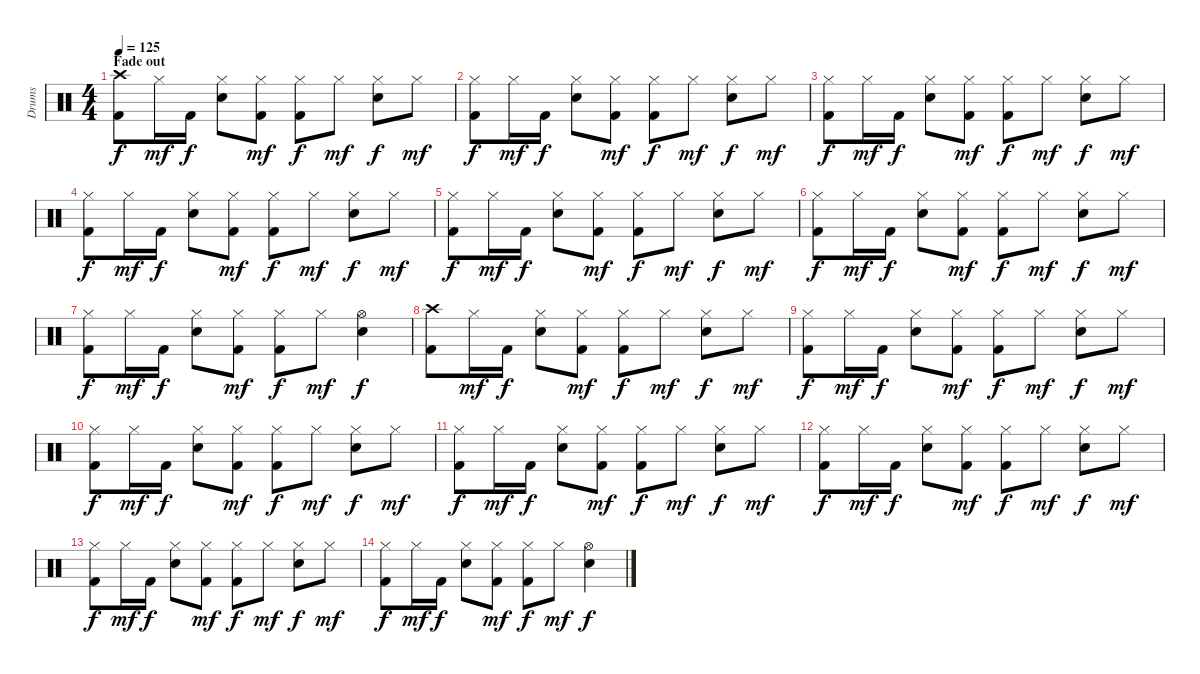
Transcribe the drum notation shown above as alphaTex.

\track ("Drums" "Drums") {instrument percussion}
\staff {score}
\articulation defaults
\ts (4 4)
\section ("" "Fade out")
\tempo 125
\clef neutral
\ks c
("Crash high (hit)" "Kick (hit) 2").8{dy f} "Hi-Hat (closed)".16{dy mf} "Kick (hit) 2".16{dy f} ("Hi-Hat (closed)" "Electric Snare (hit)").8 ("Hi-Hat (closed)" "Kick (hit) 2").8{dy mf} ("Hi-Hat (closed)" "Kick (hit) 2").8{dy f} "Hi-Hat (closed)".8{dy mf} ("Hi-Hat (closed)" "Electric Snare (hit)").8{dy f} "Hi-Hat (closed)".8{dy mf} |
("Hi-Hat (closed)" "Kick (hit) 2").8{dy f} "Hi-Hat (closed)".16{dy mf} "Kick (hit) 2".16{dy f} ("Hi-Hat (closed)" "Electric Snare (hit)").8 ("Hi-Hat (closed)" "Kick (hit) 2").8{dy mf} ("Hi-Hat (closed)" "Kick (hit) 2").8{dy f} "Hi-Hat (closed)".8{dy mf} ("Hi-Hat (closed)" "Electric Snare (hit)").8{dy f} "Hi-Hat (closed)".8{dy mf} |
("Hi-Hat (closed)" "Kick (hit) 2").8{dy f} "Hi-Hat (closed)".16{dy mf} "Kick (hit) 2".16{dy f} ("Hi-Hat (closed)" "Electric Snare (hit)").8 ("Hi-Hat (closed)" "Kick (hit) 2").8{dy mf} ("Hi-Hat (closed)" "Kick (hit) 2").8{dy f} "Hi-Hat (closed)".8{dy mf} ("Hi-Hat (closed)" "Electric Snare (hit)").8{dy f} "Hi-Hat (closed)".8{dy mf} |
("Hi-Hat (closed)" "Kick (hit) 2").8{dy f} "Hi-Hat (closed)".16{dy mf} "Kick (hit) 2".16{dy f} ("Hi-Hat (closed)" "Electric Snare (hit)").8 ("Hi-Hat (closed)" "Kick (hit) 2").8{dy mf} ("Hi-Hat (closed)" "Kick (hit) 2").8{dy f} "Hi-Hat (closed)".8{dy mf} ("Hi-Hat (closed)" "Electric Snare (hit)").8{dy f} "Hi-Hat (closed)".8{dy mf} |
("Hi-Hat (closed)" "Kick (hit) 2").8{dy f} "Hi-Hat (closed)".16{dy mf} "Kick (hit) 2".16{dy f} ("Hi-Hat (closed)" "Electric Snare (hit)").8 ("Hi-Hat (closed)" "Kick (hit) 2").8{dy mf} ("Hi-Hat (closed)" "Kick (hit) 2").8{dy f} "Hi-Hat (closed)".8{dy mf} ("Hi-Hat (closed)" "Electric Snare (hit)").8{dy f} "Hi-Hat (closed)".8{dy mf} |
("Hi-Hat (closed)" "Kick (hit) 2").8{dy f} "Hi-Hat (closed)".16{dy mf} "Kick (hit) 2".16{dy f} ("Hi-Hat (closed)" "Electric Snare (hit)").8 ("Hi-Hat (closed)" "Kick (hit) 2").8{dy mf} ("Hi-Hat (closed)" "Kick (hit) 2").8{dy f} "Hi-Hat (closed)".8{dy mf} ("Hi-Hat (closed)" "Electric Snare (hit)").8{dy f} "Hi-Hat (closed)".8{dy mf} |
("Hi-Hat (closed)" "Kick (hit) 2").8{dy f volume 8} "Hi-Hat (closed)".16{dy mf} "Kick (hit) 2".16{dy f} ("Hi-Hat (closed)" "Electric Snare (hit)").8 ("Hi-Hat (closed)" "Kick (hit) 2").8{dy mf} ("Hi-Hat (closed)" "Kick (hit) 2").8{dy f} "Hi-Hat (closed)".8{dy mf} ("Hi-Hat (open)" "Electric Snare (hit)").4{dy f} |
("Crash high (hit)" "Kick (hit) 2").8 "Hi-Hat (closed)".16{dy mf} "Kick (hit) 2".16{dy f} ("Hi-Hat (closed)" "Electric Snare (hit)").8 ("Hi-Hat (closed)" "Kick (hit) 2").8{dy mf} ("Hi-Hat (closed)" "Kick (hit) 2").8{dy f} "Hi-Hat (closed)".8{dy mf} ("Hi-Hat (closed)" "Electric Snare (hit)").8{dy f} "Hi-Hat (closed)".8{dy mf} |
("Hi-Hat (closed)" "Kick (hit) 2").8{dy f} "Hi-Hat (closed)".16{dy mf} "Kick (hit) 2".16{dy f} ("Hi-Hat (closed)" "Electric Snare (hit)").8 ("Hi-Hat (closed)" "Kick (hit) 2").8{dy mf} ("Hi-Hat (closed)" "Kick (hit) 2").8{dy f} "Hi-Hat (closed)".8{dy mf} ("Hi-Hat (closed)" "Electric Snare (hit)").8{dy f} "Hi-Hat (closed)".8{dy mf} |
("Hi-Hat (closed)" "Kick (hit) 2").8{dy f} "Hi-Hat (closed)".16{dy mf} "Kick (hit) 2".16{dy f} ("Hi-Hat (closed)" "Electric Snare (hit)").8 ("Hi-Hat (closed)" "Kick (hit) 2").8{dy mf} ("Hi-Hat (closed)" "Kick (hit) 2").8{dy f} "Hi-Hat (closed)".8{dy mf} ("Hi-Hat (closed)" "Electric Snare (hit)").8{dy f} "Hi-Hat (closed)".8{dy mf} |
("Hi-Hat (closed)" "Kick (hit) 2").8{dy f volume 0} "Hi-Hat (closed)".16{dy mf} "Kick (hit) 2".16{dy f} ("Hi-Hat (closed)" "Electric Snare (hit)").8 ("Hi-Hat (closed)" "Kick (hit) 2").8{dy mf} ("Hi-Hat (closed)" "Kick (hit) 2").8{dy f} "Hi-Hat (closed)".8{dy mf} ("Hi-Hat (closed)" "Electric Snare (hit)").8{dy f} "Hi-Hat (closed)".8{dy mf} |
("Hi-Hat (closed)" "Kick (hit) 2").8{dy f} "Hi-Hat (closed)".16{dy mf} "Kick (hit) 2".16{dy f} ("Hi-Hat (closed)" "Electric Snare (hit)").8 ("Hi-Hat (closed)" "Kick (hit) 2").8{dy mf} ("Hi-Hat (closed)" "Kick (hit) 2").8{dy f} "Hi-Hat (closed)".8{dy mf} ("Hi-Hat (closed)" "Electric Snare (hit)").8{dy f} "Hi-Hat (closed)".8{dy mf} |
("Hi-Hat (closed)" "Kick (hit) 2").8{dy f} "Hi-Hat (closed)".16{dy mf} "Kick (hit) 2".16{dy f} ("Hi-Hat (closed)" "Electric Snare (hit)").8 ("Hi-Hat (closed)" "Kick (hit) 2").8{dy mf} ("Hi-Hat (closed)" "Kick (hit) 2").8{dy f} "Hi-Hat (closed)".8{dy mf} ("Hi-Hat (closed)" "Electric Snare (hit)").8{dy f} "Hi-Hat (closed)".8{dy mf} |
("Hi-Hat (closed)" "Kick (hit) 2").8{dy f} "Hi-Hat (closed)".16{dy mf} "Kick (hit) 2".16{dy f} ("Hi-Hat (closed)" "Electric Snare (hit)").8 ("Hi-Hat (closed)" "Kick (hit) 2").8{dy mf} ("Hi-Hat (closed)" "Kick (hit) 2").8{dy f} "Hi-Hat (closed)".8{dy mf} ("Hi-Hat (open)" "Electric Snare (hit)").4{dy f}
